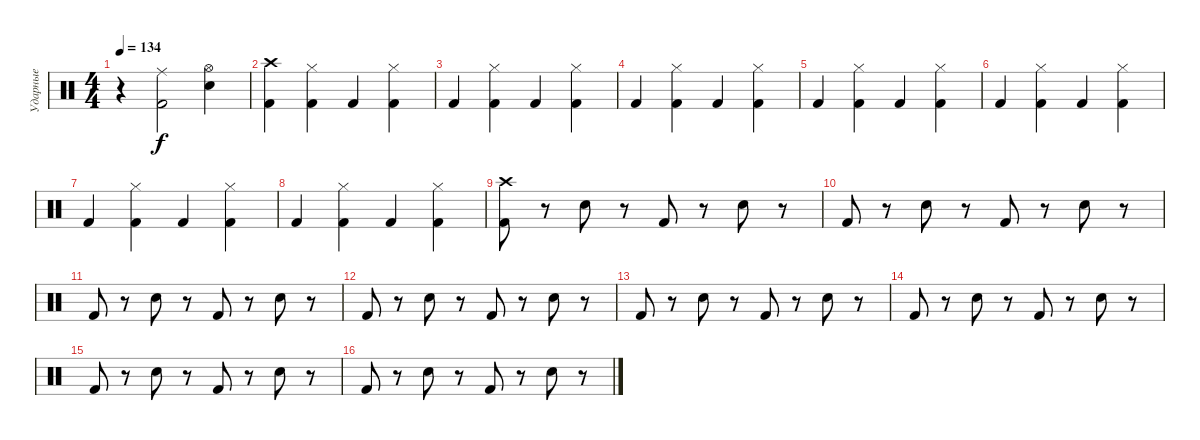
\track ("Ударные" "Ударные") {instrument percussion}
\staff {score}
\articulation defaults
\ts (4 4)
\tempo 134
\clef neutral
\ks c
r.4{dy f} ("Ride (middle)" "Kick (hit) 2").2 ("Hi-Hat (open)" "Snare (hit) 2").4 |
("Crash high (hit)" "Kick (hit) 2").4 ("Hi-Hat (closed)" "Kick (hit) 2").4 "Kick (hit) 2".4 ("Hi-Hat (closed)" "Kick (hit) 2").4 |
"Kick (hit) 2".4 ("Hi-Hat (closed)" "Kick (hit) 2").4 "Kick (hit) 2".4 ("Hi-Hat (closed)" "Kick (hit) 2").4 |
"Kick (hit) 2".4 ("Hi-Hat (closed)" "Kick (hit) 2").4 "Kick (hit) 2".4 ("Hi-Hat (closed)" "Kick (hit) 2").4 |
"Kick (hit) 2".4 ("Hi-Hat (closed)" "Kick (hit) 2").4 "Kick (hit) 2".4 ("Hi-Hat (closed)" "Kick (hit) 2").4 |
"Kick (hit) 2".4 ("Hi-Hat (closed)" "Kick (hit) 2").4 "Kick (hit) 2".4 ("Hi-Hat (closed)" "Kick (hit) 2").4 |
"Kick (hit) 2".4 ("Hi-Hat (closed)" "Kick (hit) 2").4 "Kick (hit) 2".4 ("Hi-Hat (closed)" "Kick (hit) 2").4 |
"Kick (hit) 2".4 ("Hi-Hat (closed)" "Kick (hit) 2").4 "Kick (hit) 2".4 ("Hi-Hat (closed)" "Kick (hit) 2").4 |
("Crash high (hit)" "Kick (hit) 2").8 r.8 "Snare (hit) 2".8 r.8 "Kick (hit) 2".8 r.8 "Snare (hit) 2".8 r.8 |
"Kick (hit) 2".8 r.8 "Snare (hit) 2".8 r.8 "Kick (hit) 2".8 r.8 "Snare (hit) 2".8 r.8 |
"Kick (hit) 2".8 r.8 "Snare (hit) 2".8 r.8 "Kick (hit) 2".8 r.8 "Snare (hit) 2".8 r.8 |
"Kick (hit) 2".8 r.8 "Snare (hit) 2".8 r.8 "Kick (hit) 2".8 r.8 "Snare (hit) 2".8 r.8 |
"Kick (hit) 2".8 r.8 "Snare (hit) 2".8 r.8 "Kick (hit) 2".8 r.8 "Snare (hit) 2".8 r.8 |
"Kick (hit) 2".8 r.8 "Snare (hit) 2".8 r.8 "Kick (hit) 2".8 r.8 "Snare (hit) 2".8 r.8 |
"Kick (hit) 2".8 r.8 "Snare (hit) 2".8 r.8 "Kick (hit) 2".8 r.8 "Snare (hit) 2".8 r.8 |
"Kick (hit) 2".8 r.8 "Snare (hit) 2".8 r.8 "Kick (hit) 2".8 r.8 "Snare (hit) 2".8 r.8
